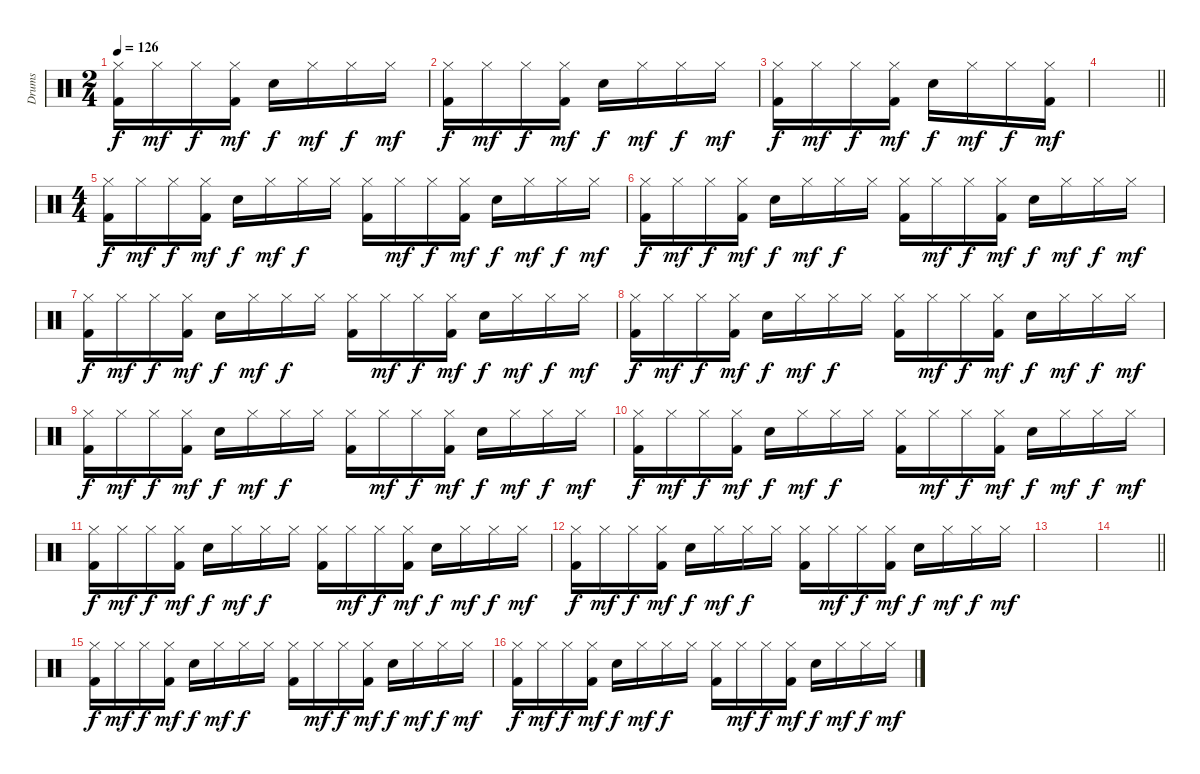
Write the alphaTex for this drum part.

\track ("Drums" "Drums") {instrument percussion}
\staff {score}
\articulation defaults
\ts (2 4)
\tempo 126
\clef neutral
\ks c
("Hi-Hat (closed)" "Kick (hit) 2").16{dy f} "Hi-Hat (closed)".16{dy mf} "Hi-Hat (closed)".16{dy f} ("Hi-Hat (closed)" "Kick (hit) 2").16{dy mf} "Snare (hit) 2".16{dy f} "Hi-Hat (closed)".16{dy mf} "Hi-Hat (closed)".16{dy f} "Hi-Hat (closed)".16{dy mf} |
("Hi-Hat (closed)" "Kick (hit) 2").16{dy f} "Hi-Hat (closed)".16{dy mf} "Hi-Hat (closed)".16{dy f} ("Hi-Hat (closed)" "Kick (hit) 2").16{dy mf} "Snare (hit) 2".16{dy f} "Hi-Hat (closed)".16{dy mf} "Hi-Hat (closed)".16{dy f} "Hi-Hat (closed)".16{dy mf} |
("Hi-Hat (closed)" "Kick (hit) 2").16{dy f} "Hi-Hat (closed)".16{dy mf} "Hi-Hat (closed)".16{dy f} ("Hi-Hat (closed)" "Kick (hit) 2").16{dy mf} "Snare (hit) 2".16{dy f} "Hi-Hat (closed)".16{dy mf} "Hi-Hat (closed)".16{dy f} ("Hi-Hat (closed)" "Kick (hit) 2").16{dy mf} |
\barLineRight lightlight
|
\ts (4 4)
("Hi-Hat (closed)" "Kick (hit) 2").16{dy f} "Hi-Hat (closed)".16{dy mf} "Hi-Hat (closed)".16{dy f} ("Hi-Hat (closed)" "Kick (hit) 2").16{dy mf} "Snare (hit) 2".16{dy f} "Hi-Hat (closed)".16{dy mf} "Hi-Hat (closed)".16{dy f} "Hi-Hat (closed)".16 ("Hi-Hat (closed)" "Kick (hit) 2").16 "Hi-Hat (closed)".16{dy mf} "Hi-Hat (closed)".16{dy f} ("Hi-Hat (closed)" "Kick (hit) 2").16{dy mf} "Snare (hit) 2".16{dy f} "Hi-Hat (closed)".16{dy mf} "Hi-Hat (closed)".16{dy f} "Hi-Hat (closed)".16{dy mf} |
("Hi-Hat (closed)" "Kick (hit) 2").16{dy f} "Hi-Hat (closed)".16{dy mf} "Hi-Hat (closed)".16{dy f} ("Hi-Hat (closed)" "Kick (hit) 2").16{dy mf} "Snare (hit) 2".16{dy f} "Hi-Hat (closed)".16{dy mf} "Hi-Hat (closed)".16{dy f} "Hi-Hat (closed)".16 ("Hi-Hat (closed)" "Kick (hit) 2").16 "Hi-Hat (closed)".16{dy mf} "Hi-Hat (closed)".16{dy f} ("Hi-Hat (closed)" "Kick (hit) 2").16{dy mf} "Snare (hit) 2".16{dy f} "Hi-Hat (closed)".16{dy mf} "Hi-Hat (closed)".16{dy f} "Hi-Hat (closed)".16{dy mf} |
("Hi-Hat (closed)" "Kick (hit) 2").16{dy f} "Hi-Hat (closed)".16{dy mf} "Hi-Hat (closed)".16{dy f} ("Hi-Hat (closed)" "Kick (hit) 2").16{dy mf} "Snare (hit) 2".16{dy f} "Hi-Hat (closed)".16{dy mf} "Hi-Hat (closed)".16{dy f} "Hi-Hat (closed)".16 ("Hi-Hat (closed)" "Kick (hit) 2").16 "Hi-Hat (closed)".16{dy mf} "Hi-Hat (closed)".16{dy f} ("Hi-Hat (closed)" "Kick (hit) 2").16{dy mf} "Snare (hit) 2".16{dy f} "Hi-Hat (closed)".16{dy mf} "Hi-Hat (closed)".16{dy f} "Hi-Hat (closed)".16{dy mf} |
("Hi-Hat (closed)" "Kick (hit) 2").16{dy f} "Hi-Hat (closed)".16{dy mf} "Hi-Hat (closed)".16{dy f} ("Hi-Hat (closed)" "Kick (hit) 2").16{dy mf} "Snare (hit) 2".16{dy f} "Hi-Hat (closed)".16{dy mf} "Hi-Hat (closed)".16{dy f} "Hi-Hat (closed)".16 ("Hi-Hat (closed)" "Kick (hit) 2").16 "Hi-Hat (closed)".16{dy mf} "Hi-Hat (closed)".16{dy f} ("Hi-Hat (closed)" "Kick (hit) 2").16{dy mf} "Snare (hit) 2".16{dy f} "Hi-Hat (closed)".16{dy mf} "Hi-Hat (closed)".16{dy f} "Hi-Hat (closed)".16{dy mf} |
("Hi-Hat (closed)" "Kick (hit) 2").16{dy f} "Hi-Hat (closed)".16{dy mf} "Hi-Hat (closed)".16{dy f} ("Hi-Hat (closed)" "Kick (hit) 2").16{dy mf} "Snare (hit) 2".16{dy f} "Hi-Hat (closed)".16{dy mf} "Hi-Hat (closed)".16{dy f} "Hi-Hat (closed)".16 ("Hi-Hat (closed)" "Kick (hit) 2").16 "Hi-Hat (closed)".16{dy mf} "Hi-Hat (closed)".16{dy f} ("Hi-Hat (closed)" "Kick (hit) 2").16{dy mf} "Snare (hit) 2".16{dy f} "Hi-Hat (closed)".16{dy mf} "Hi-Hat (closed)".16{dy f} "Hi-Hat (closed)".16{dy mf} |
("Hi-Hat (closed)" "Kick (hit) 2").16{dy f} "Hi-Hat (closed)".16{dy mf} "Hi-Hat (closed)".16{dy f} ("Hi-Hat (closed)" "Kick (hit) 2").16{dy mf} "Snare (hit) 2".16{dy f} "Hi-Hat (closed)".16{dy mf} "Hi-Hat (closed)".16{dy f} "Hi-Hat (closed)".16 ("Hi-Hat (closed)" "Kick (hit) 2").16 "Hi-Hat (closed)".16{dy mf} "Hi-Hat (closed)".16{dy f} ("Hi-Hat (closed)" "Kick (hit) 2").16{dy mf} "Snare (hit) 2".16{dy f} "Hi-Hat (closed)".16{dy mf} "Hi-Hat (closed)".16{dy f} "Hi-Hat (closed)".16{dy mf} |
("Hi-Hat (closed)" "Kick (hit) 2").16{dy f} "Hi-Hat (closed)".16{dy mf} "Hi-Hat (closed)".16{dy f} ("Hi-Hat (closed)" "Kick (hit) 2").16{dy mf} "Snare (hit) 2".16{dy f} "Hi-Hat (closed)".16{dy mf} "Hi-Hat (closed)".16{dy f} "Hi-Hat (closed)".16 ("Hi-Hat (closed)" "Kick (hit) 2").16 "Hi-Hat (closed)".16{dy mf} "Hi-Hat (closed)".16{dy f} ("Hi-Hat (closed)" "Kick (hit) 2").16{dy mf} "Snare (hit) 2".16{dy f} "Hi-Hat (closed)".16{dy mf} "Hi-Hat (closed)".16{dy f} "Hi-Hat (closed)".16{dy mf} |
("Hi-Hat (closed)" "Kick (hit) 2").16{dy f} "Hi-Hat (closed)".16{dy mf} "Hi-Hat (closed)".16{dy f} ("Hi-Hat (closed)" "Kick (hit) 2").16{dy mf} "Snare (hit) 2".16{dy f} "Hi-Hat (closed)".16{dy mf} "Hi-Hat (closed)".16{dy f} "Hi-Hat (closed)".16 ("Hi-Hat (closed)" "Kick (hit) 2").16 "Hi-Hat (closed)".16{dy mf} "Hi-Hat (closed)".16{dy f} ("Hi-Hat (closed)" "Kick (hit) 2").16{dy mf} "Snare (hit) 2".16{dy f} "Hi-Hat (closed)".16{dy mf} "Hi-Hat (closed)".16{dy f} "Hi-Hat (closed)".16{dy mf} |
|
\barLineRight lightlight
|
("Hi-Hat (closed)" "Kick (hit) 2").16{dy f} "Hi-Hat (closed)".16{dy mf} "Hi-Hat (closed)".16{dy f} ("Hi-Hat (closed)" "Kick (hit) 2").16{dy mf} "Snare (hit) 2".16{dy f} "Hi-Hat (closed)".16{dy mf} "Hi-Hat (closed)".16{dy f} "Hi-Hat (closed)".16 ("Hi-Hat (closed)" "Kick (hit) 2").16 "Hi-Hat (closed)".16{dy mf} "Hi-Hat (closed)".16{dy f} ("Hi-Hat (closed)" "Kick (hit) 2").16{dy mf} "Snare (hit) 2".16{dy f} "Hi-Hat (closed)".16{dy mf} "Hi-Hat (closed)".16{dy f} "Hi-Hat (closed)".16{dy mf} |
("Hi-Hat (closed)" "Kick (hit) 2").16{dy f} "Hi-Hat (closed)".16{dy mf} "Hi-Hat (closed)".16{dy f} ("Hi-Hat (closed)" "Kick (hit) 2").16{dy mf} "Snare (hit) 2".16{dy f} "Hi-Hat (closed)".16{dy mf} "Hi-Hat (closed)".16{dy f} "Hi-Hat (closed)".16 ("Hi-Hat (closed)" "Kick (hit) 2").16 "Hi-Hat (closed)".16{dy mf} "Hi-Hat (closed)".16{dy f} ("Hi-Hat (closed)" "Kick (hit) 2").16{dy mf} "Snare (hit) 2".16{dy f} "Hi-Hat (closed)".16{dy mf} "Hi-Hat (closed)".16{dy f} "Hi-Hat (closed)".16{dy mf}
